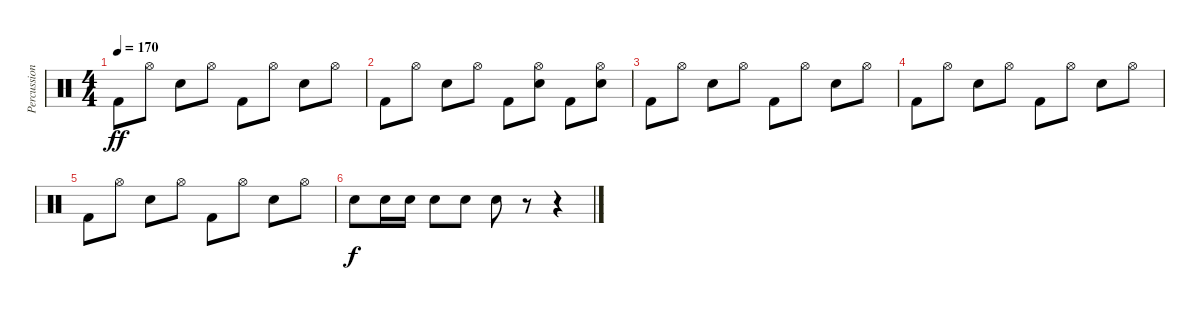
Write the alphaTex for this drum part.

\track ("Percussion" "Percussion") {instrument percussion}
\staff {score}
\articulation defaults
\ts (4 4)
\tempo 170
\clef neutral
\ks c "Kick (hit) 2".8{dy ff} "Hi-Hat (open)".8 "Electric Snare (hit)".8 "Hi-Hat (open)".8 "Kick (hit) 2".8 "Hi-Hat (open)".8 "Electric Snare (hit)".8 "Hi-Hat (open)".8
|
"Kick (hit) 2".8 "Hi-Hat (open)".8 "Electric Snare (hit)".8 "Hi-Hat (open)".8 "Kick (hit) 2".8 ("Hi-Hat (open)" "Electric Snare (hit)").8 "Kick (hit) 2".8 ("Hi-Hat (open)" "Electric Snare (hit)").8 |
"Kick (hit) 2".8 "Hi-Hat (open)".8 "Electric Snare (hit)".8 "Hi-Hat (open)".8 "Kick (hit) 2".8 "Hi-Hat (open)".8 "Electric Snare (hit)".8 "Hi-Hat (open)".8 |
"Kick (hit) 2".8 "Hi-Hat (open)".8 "Electric Snare (hit)".8 "Hi-Hat (open)".8 "Kick (hit) 2".8 "Hi-Hat (open)".8 "Electric Snare (hit)".8 "Hi-Hat (open)".8 |
"Kick (hit) 2".8 "Hi-Hat (open)".8 "Electric Snare (hit)".8 "Hi-Hat (open)".8 "Kick (hit) 2".8 "Hi-Hat (open)".8 "Electric Snare (hit)".8 "Hi-Hat (open)".8 |
"Electric Snare (hit)".8{dy f} "Electric Snare (hit)".16 "Electric Snare (hit)".16 "Electric Snare (hit)".8 "Electric Snare (hit)".8 "Electric Snare (hit)".8 r.8 r.4
